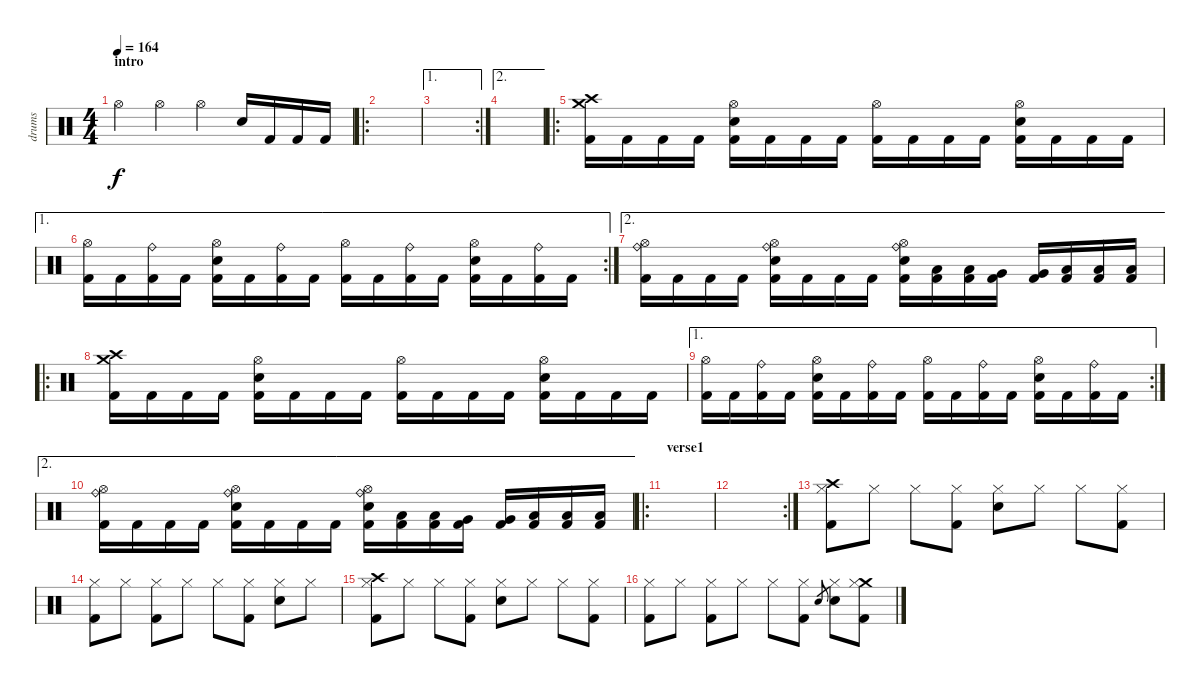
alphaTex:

\track ("drums" "drums") {instrument percussion}
\staff {score}
\articulation defaults
\ts (4 4)
\section ("" "intro")
\tempo 164
\clef neutral
\ks c "Hi-Hat (open)".4{dy f} "Hi-Hat (open)".4 "Hi-Hat (open)".4 "Electric Snare (hit)".16 "Kick (hit) 2".16 "Kick (hit) 2".16 "Kick (hit) 2".16
|
\ro
|
\ae 1
\rc 2
|
\ae 2
|
\ro
("Crash high (hit)" "Crash medium (hit)" "Kick (hit) 2").16 "Kick (hit) 2".16 "Kick (hit) 2".16 "Kick (hit) 2".16 ("Hi-Hat (open)" "Electric Snare (hit)" "Kick (hit) 2").16 "Kick (hit) 2".16 "Kick (hit) 2".16 "Kick (hit) 2".16 ("Hi-Hat (open)" "Kick (hit) 2").16 "Kick (hit) 2".16 "Kick (hit) 2".16 "Kick (hit) 2".16 ("Hi-Hat (open)" "Electric Snare (hit)" "Kick (hit) 2").16 "Kick (hit) 2".16 "Kick (hit) 2".16 "Kick (hit) 2".16 |
\ae 1
\rc 2
("Hi-Hat (open)" "Kick (hit) 2").16 "Kick (hit) 2".16 ("Ride (bell)" "Kick (hit) 2").16 "Kick (hit) 2".16 ("Hi-Hat (open)" "Electric Snare (hit)" "Kick (hit) 2").16 "Kick (hit) 2".16 ("Ride (bell)" "Kick (hit) 2").16 "Kick (hit) 2".16 ("Hi-Hat (open)" "Kick (hit) 2").16 "Kick (hit) 2".16 ("Ride (bell)" "Kick (hit) 2").16 "Kick (hit) 2".16 ("Hi-Hat (open)" "Electric Snare (hit)" "Kick (hit) 2").16 "Kick (hit) 2".16 ("Ride (bell)" "Kick (hit) 2").16 "Kick (hit) 2".16 |
\ae 2
("Ride (bell)" "Hi-Hat (open)" "Kick (hit) 2").16 "Kick (hit) 2".16 "Kick (hit) 2".16 "Kick (hit) 2".16 ("Ride (bell)" "Hi-Hat (open)" "Electric Snare (hit)" "Kick (hit) 2").16 "Kick (hit) 2".16 "Kick (hit) 2".16 "Kick (hit) 2".16 ("Ride (bell)" "Hi-Hat (open)" "Electric Snare (hit)" "Kick (hit) 2").16 ("Low Tom (hit)" "Kick (hit) 2").16 ("Low Tom (hit)" "Kick (hit) 2").16 ("Very Low Tom (hit)" "Kick (hit) 2").16 ("Very Low Tom (hit)" "Kick (hit) 2").16 ("Low Floor Tom (hit)" "Kick (hit) 2").16 ("Low Floor Tom (hit)" "Kick (hit) 2").16 ("Low Floor Tom (hit)" "Kick (hit) 2").16 |
\ro
("Crash high (hit)" "Crash medium (hit)" "Kick (hit) 2").16 "Kick (hit) 2".16 "Kick (hit) 2".16 "Kick (hit) 2".16 ("Hi-Hat (open)" "Electric Snare (hit)" "Kick (hit) 2").16 "Kick (hit) 2".16 "Kick (hit) 2".16 "Kick (hit) 2".16 ("Hi-Hat (open)" "Kick (hit) 2").16 "Kick (hit) 2".16 "Kick (hit) 2".16 "Kick (hit) 2".16 ("Hi-Hat (open)" "Electric Snare (hit)" "Kick (hit) 2").16 "Kick (hit) 2".16 "Kick (hit) 2".16 "Kick (hit) 2".16 |
\ae 1
\rc 2
("Hi-Hat (open)" "Kick (hit) 2").16 "Kick (hit) 2".16 ("Ride (bell)" "Kick (hit) 2").16 "Kick (hit) 2".16 ("Hi-Hat (open)" "Electric Snare (hit)" "Kick (hit) 2").16 "Kick (hit) 2".16 ("Ride (bell)" "Kick (hit) 2").16 "Kick (hit) 2".16 ("Hi-Hat (open)" "Kick (hit) 2").16 "Kick (hit) 2".16 ("Ride (bell)" "Kick (hit) 2").16 "Kick (hit) 2".16 ("Hi-Hat (open)" "Electric Snare (hit)" "Kick (hit) 2").16 "Kick (hit) 2".16 ("Ride (bell)" "Kick (hit) 2").16 "Kick (hit) 2".16 |
\ae 2
("Ride (bell)" "Hi-Hat (open)" "Kick (hit) 2").16 "Kick (hit) 2".16 "Kick (hit) 2".16 "Kick (hit) 2".16 ("Ride (bell)" "Hi-Hat (open)" "Electric Snare (hit)" "Kick (hit) 2").16 "Kick (hit) 2".16 "Kick (hit) 2".16 "Kick (hit) 2".16 ("Ride (bell)" "Hi-Hat (open)" "Electric Snare (hit)" "Kick (hit) 2").16 ("Low Tom (hit)" "Kick (hit) 2").16 ("Low Tom (hit)" "Kick (hit) 2").16 ("Very Low Tom (hit)" "Kick (hit) 2").16 ("Very Low Tom (hit)" "Kick (hit) 2").16 ("Low Floor Tom (hit)" "Kick (hit) 2").16 ("Low Floor Tom (hit)" "Kick (hit) 2").16 ("Low Floor Tom (hit)" "Kick (hit) 2").16 |
\ro
\section ("" "verse1")
|
\rc 2
|
("Crash high (hit)" "Hi-Hat (closed)" "Kick (hit) 2").8 "Hi-Hat (closed)".8 "Hi-Hat (closed)".8 ("Hi-Hat (closed)" "Kick (hit) 2").8 ("Hi-Hat (closed)" "Electric Snare (hit)").8 "Hi-Hat (closed)".8 "Hi-Hat (closed)".8 ("Hi-Hat (closed)" "Kick (hit) 2").8 |
("Hi-Hat (closed)" "Kick (hit) 2").8 "Hi-Hat (closed)".8 ("Hi-Hat (closed)" "Kick (hit) 2").8 "Hi-Hat (closed)".8 "Hi-Hat (closed)".8 ("Hi-Hat (closed)" "Kick (hit) 2").8 ("Hi-Hat (closed)" "Electric Snare (hit)").8 "Hi-Hat (closed)".8 |
("Crash high (hit)" "Hi-Hat (closed)" "Kick (hit) 2").8 "Hi-Hat (closed)".8 "Hi-Hat (closed)".8 ("Hi-Hat (closed)" "Kick (hit) 2").8 ("Hi-Hat (closed)" "Electric Snare (hit)").8 "Hi-Hat (closed)".8 "Hi-Hat (closed)".8 ("Hi-Hat (closed)" "Kick (hit) 2").8 |
("Hi-Hat (closed)" "Kick (hit) 2").8 "Hi-Hat (closed)".8 ("Hi-Hat (closed)" "Kick (hit) 2").8 "Hi-Hat (closed)".8 "Hi-Hat (closed)".8 ("Hi-Hat (closed)" "Kick (hit) 2").8 "Electric Snare (hit)".8{gr} ("Hi-Hat (closed)" "Electric Snare (hit)").8 ("Crash medium (hit)" "Hi-Hat (closed)" "Kick (hit) 2").8
